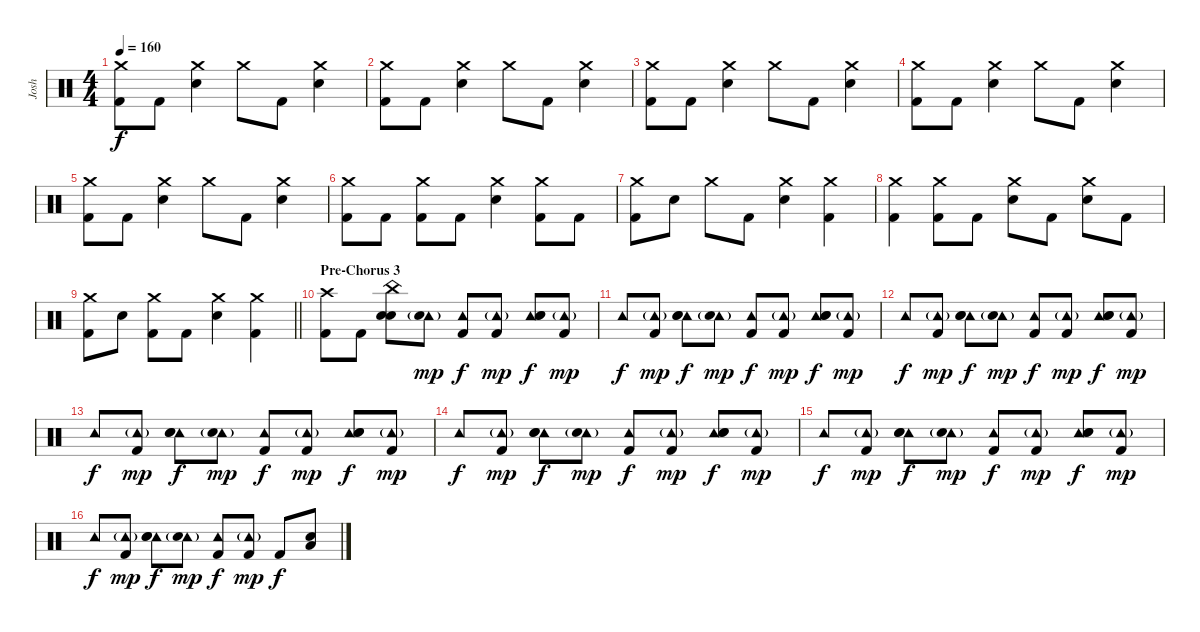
\track ("Josh" "Josh") {instrument percussion}
\staff {score}
\articulation defaults
\ts (4 4)
\tempo 160
\clef neutral
\ks c
("Crash medium (hit)" "Kick (hit) 2").8{dy f} "Kick (hit) 2".8 ("Crash medium (hit)" "Electric Snare (hit)").4 "Crash medium (hit)".8 "Kick (hit) 2".8 ("Crash medium (hit)" "Electric Snare (hit)").4 |
("Crash medium (hit)" "Kick (hit) 2").8 "Kick (hit) 2".8 ("Crash medium (hit)" "Electric Snare (hit)").4 "Crash medium (hit)".8 "Kick (hit) 2".8 ("Crash medium (hit)" "Electric Snare (hit)").4 |
("Crash medium (hit)" "Kick (hit) 2").8 "Kick (hit) 2".8 ("Crash medium (hit)" "Electric Snare (hit)").4 "Crash medium (hit)".8 "Kick (hit) 2".8 ("Crash medium (hit)" "Electric Snare (hit)").4 |
("Crash medium (hit)" "Kick (hit) 2").8 "Kick (hit) 2".8 ("Crash medium (hit)" "Electric Snare (hit)").4 "Crash medium (hit)".8 "Kick (hit) 2".8 ("Crash medium (hit)" "Electric Snare (hit)").4 |
("Crash medium (hit)" "Kick (hit) 2").8 "Kick (hit) 2".8 ("Crash medium (hit)" "Electric Snare (hit)").4 "Crash medium (hit)".8 "Kick (hit) 2".8 ("Crash medium (hit)" "Electric Snare (hit)").4 |
("Crash medium (hit)" "Kick (hit) 2").8 "Kick (hit) 2".8 ("Crash medium (hit)" "Kick (hit) 2").8 "Kick (hit) 2".8 ("Crash medium (hit)" "Electric Snare (hit)").4 ("Crash medium (hit)" "Kick (hit) 2").8 "Kick (hit) 2".8 |
("Crash medium (hit)" "Kick (hit) 2").8 "Electric Snare (hit)".8 "Crash medium (hit)".8 "Kick (hit) 2".8 ("Crash medium (hit)" "Electric Snare (hit)").4 ("Crash medium (hit)" "Kick (hit) 2").4 |
("Crash medium (hit)" "Kick (hit) 2").4 ("Crash medium (hit)" "Kick (hit) 2").8 "Kick (hit) 2".8 ("Crash medium (hit)" "Electric Snare (hit)").8 "Kick (hit) 2".8 ("Crash medium (hit)" "Electric Snare (hit)").8 "Kick (hit) 2".8 |
\barLineRight lightlight
("Crash medium (hit)" "Kick (hit) 2").8 "Electric Snare (hit)".8 ("Crash medium (hit)" "Kick (hit) 2").8 "Kick (hit) 2".8 ("Crash medium (hit)" "Electric Snare (hit)").4 ("Crash medium (hit)" "Kick (hit) 2").4 |
\section ("" "Pre-Chorus 3")
("Crash high (hit)" "Kick (hit) 2").8 "Kick (hit) 2".8 ("China (hit)" "Hand Clap (hit)" "Electric Snare (hit)").8 ("Tambourine (hit)"{g} "Hand Clap (hit)").8{dy mp} ("Tambourine (hit)" "Kick (hit) 2").8{dy f} ("Tambourine (hit)"{g} "Kick (hit) 2").8{dy mp} ("Tambourine (hit)" "Hand Clap (hit)" "Electric Snare (hit)").8{dy f} ("Tambourine (hit)"{g} "Kick (hit) 2").8{dy mp} |
"Tambourine (hit)".8{dy f} ("Tambourine (hit)"{g} "Kick (hit) 2").8{dy mp} ("Tambourine (hit)" "Hand Clap (hit)" "Electric Snare (hit)").8{dy f} ("Tambourine (hit)"{g} "Hand Clap (hit)").8{dy mp} ("Tambourine (hit)" "Kick (hit) 2").8{dy f} ("Tambourine (hit)"{g} "Kick (hit) 2").8{dy mp} ("Tambourine (hit)" "Hand Clap (hit)" "Electric Snare (hit)").8{dy f} ("Tambourine (hit)"{g} "Kick (hit) 2").8{dy mp} |
"Tambourine (hit)".8{dy f} ("Tambourine (hit)"{g} "Kick (hit) 2").8{dy mp} ("Tambourine (hit)" "Hand Clap (hit)" "Electric Snare (hit)").8{dy f} ("Tambourine (hit)"{g} "Hand Clap (hit)").8{dy mp} ("Tambourine (hit)" "Kick (hit) 2").8{dy f} ("Tambourine (hit)"{g} "Kick (hit) 2").8{dy mp} ("Tambourine (hit)" "Hand Clap (hit)" "Electric Snare (hit)").8{dy f} ("Tambourine (hit)"{g} "Kick (hit) 2").8{dy mp} |
"Tambourine (hit)".8{dy f} ("Tambourine (hit)"{g} "Kick (hit) 2").8{dy mp} ("Tambourine (hit)" "Hand Clap (hit)" "Electric Snare (hit)").8{dy f} ("Tambourine (hit)"{g} "Hand Clap (hit)").8{dy mp} ("Tambourine (hit)" "Kick (hit) 2").8{dy f} ("Tambourine (hit)"{g} "Kick (hit) 2").8{dy mp} ("Tambourine (hit)" "Hand Clap (hit)" "Electric Snare (hit)").8{dy f} ("Tambourine (hit)"{g} "Kick (hit) 2").8{dy mp} |
"Tambourine (hit)".8{dy f} ("Tambourine (hit)"{g} "Kick (hit) 2").8{dy mp} ("Tambourine (hit)" "Hand Clap (hit)" "Electric Snare (hit)").8{dy f} ("Tambourine (hit)"{g} "Hand Clap (hit)").8{dy mp} ("Tambourine (hit)" "Kick (hit) 2").8{dy f} ("Tambourine (hit)"{g} "Kick (hit) 2").8{dy mp} ("Tambourine (hit)" "Hand Clap (hit)" "Electric Snare (hit)").8{dy f} ("Tambourine (hit)"{g} "Kick (hit) 2").8{dy mp} |
"Tambourine (hit)".8{dy f} ("Tambourine (hit)"{g} "Kick (hit) 2").8{dy mp} ("Tambourine (hit)" "Hand Clap (hit)" "Electric Snare (hit)").8{dy f} ("Tambourine (hit)"{g} "Hand Clap (hit)").8{dy mp} ("Tambourine (hit)" "Kick (hit) 2").8{dy f} ("Tambourine (hit)"{g} "Kick (hit) 2").8{dy mp} ("Tambourine (hit)" "Hand Clap (hit)" "Electric Snare (hit)").8{dy f} ("Tambourine (hit)"{g} "Kick (hit) 2").8{dy mp} |
"Tambourine (hit)".8{dy f} ("Tambourine (hit)"{g} "Kick (hit) 2").8{dy mp} ("Tambourine (hit)" "Hand Clap (hit)" "Electric Snare (hit)").8{dy f} ("Tambourine (hit)"{g} "Hand Clap (hit)").8{dy mp} ("Tambourine (hit)" "Kick (hit) 2").8{dy f} ("Tambourine (hit)"{g} "Kick (hit) 2").8{dy mp} "Kick (hit) 2".8{dy f} ("Low Tom (hit)" "Electric Snare (hit)").8
